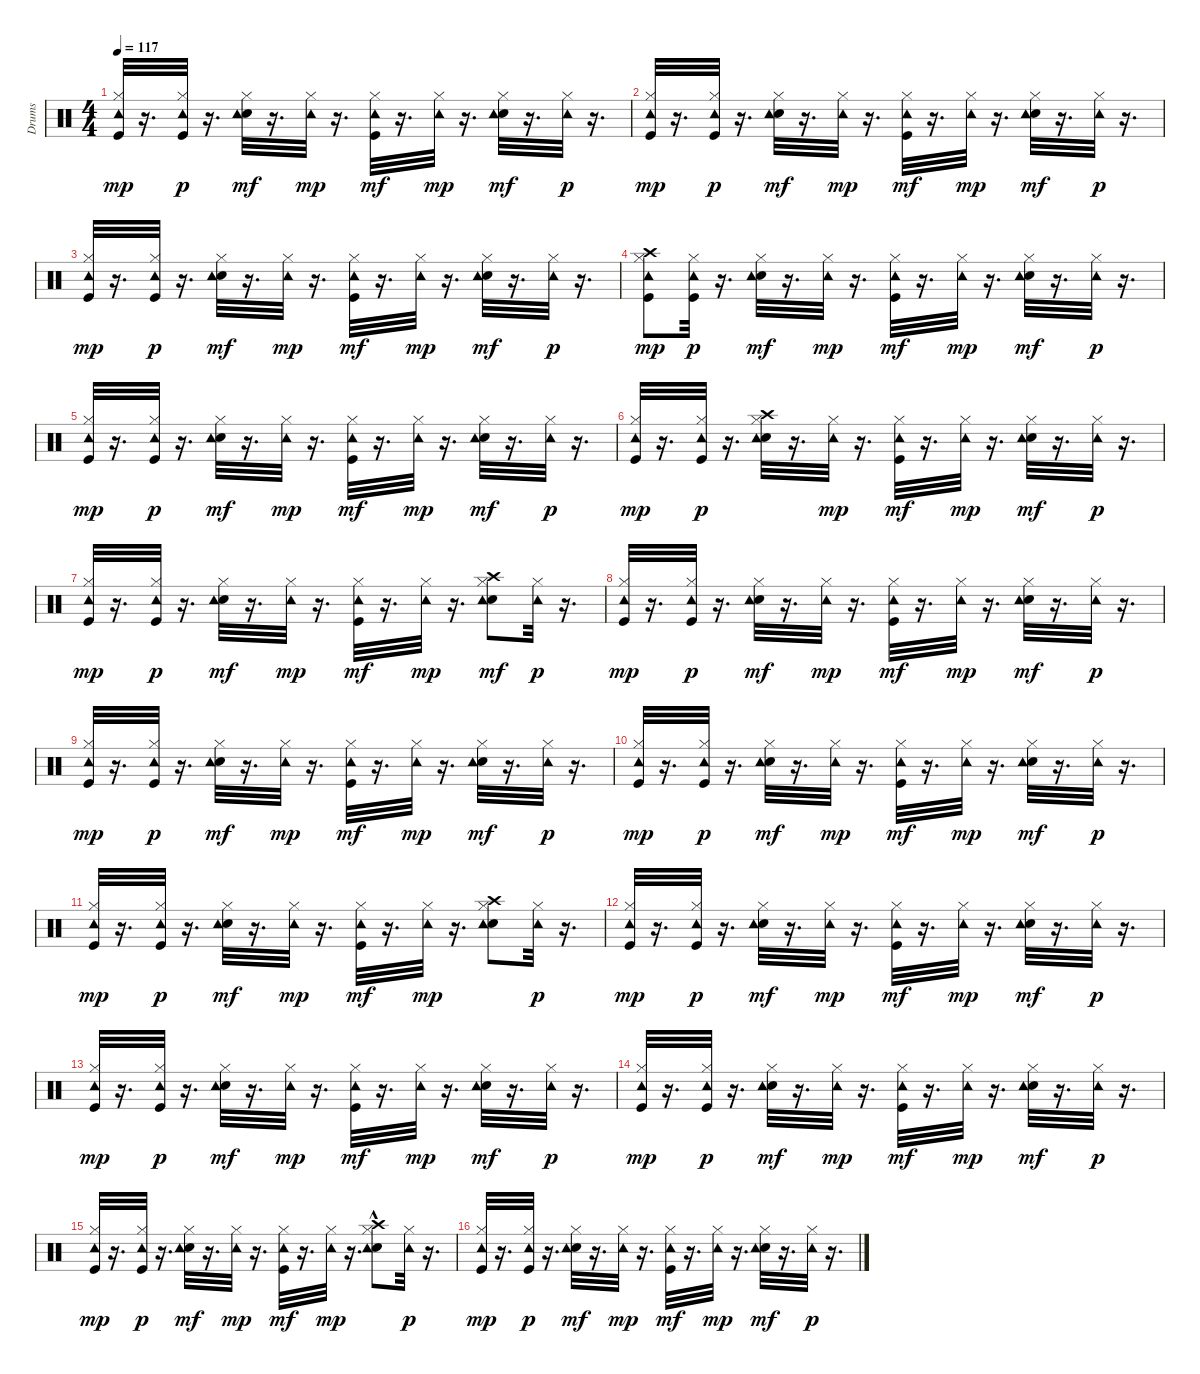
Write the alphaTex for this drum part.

\track ("Drums" "Drums") {instrument percussion}
\staff {score}
\articulation defaults
\ts (4 4)
\tempo 117
\clef neutral
\ks c
("Kick (hit)" "Hi-Hat (closed)" "Tambourine (hit)").32{dy mp} r.16{d} ("Kick (hit)" "Hi-Hat (closed)" "Tambourine (hit)").32{dy p} r.16{d} ("Electric Snare (hit)" "Hi-Hat (closed)" "Tambourine (hit)").32{dy mf} r.16{d} ("Hi-Hat (closed)" "Tambourine (hit)").32{dy mp} r.16{d} ("Kick (hit)" "Hi-Hat (closed)" "Tambourine (hit)").32{dy mf} r.16{d} ("Hi-Hat (closed)" "Tambourine (hit)").32{dy mp} r.16{d} ("Electric Snare (hit)" "Hi-Hat (closed)" "Tambourine (hit)").32{dy mf} r.16{d} ("Hi-Hat (closed)" "Tambourine (hit)").32{dy p} r.16{d} |
("Kick (hit)" "Hi-Hat (closed)" "Tambourine (hit)").32{dy mp} r.16{d} ("Kick (hit)" "Hi-Hat (closed)" "Tambourine (hit)").32{dy p} r.16{d} ("Electric Snare (hit)" "Hi-Hat (closed)" "Tambourine (hit)").32{dy mf} r.16{d} ("Hi-Hat (closed)" "Tambourine (hit)").32{dy mp} r.16{d} ("Kick (hit)" "Hi-Hat (closed)" "Tambourine (hit)").32{dy mf} r.16{d} ("Hi-Hat (closed)" "Tambourine (hit)").32{dy mp} r.16{d} ("Electric Snare (hit)" "Hi-Hat (closed)" "Tambourine (hit)").32{dy mf} r.16{d} ("Hi-Hat (closed)" "Tambourine (hit)").32{dy p} r.16{d} |
("Kick (hit)" "Hi-Hat (closed)" "Tambourine (hit)").32{dy mp} r.16{d} ("Kick (hit)" "Hi-Hat (closed)" "Tambourine (hit)").32{dy p} r.16{d} ("Electric Snare (hit)" "Hi-Hat (closed)" "Tambourine (hit)").32{dy mf} r.16{d} ("Hi-Hat (closed)" "Tambourine (hit)").32{dy mp} r.16{d} ("Kick (hit)" "Hi-Hat (closed)" "Tambourine (hit)").32{dy mf} r.16{d} ("Hi-Hat (closed)" "Tambourine (hit)").32{dy mp} r.16{d} ("Electric Snare (hit)" "Hi-Hat (closed)" "Tambourine (hit)").32{dy mf} r.16{d} ("Hi-Hat (closed)" "Tambourine (hit)").32{dy p} r.16{d} |
("Crash high (hit)" "Kick (hit)" "Hi-Hat (closed)" "Tambourine (hit)").8{dy mp} ("Kick (hit)" "Hi-Hat (closed)" "Tambourine (hit)").32{dy p} r.16{d} ("Electric Snare (hit)" "Hi-Hat (closed)" "Tambourine (hit)").32{dy mf} r.16{d} ("Hi-Hat (closed)" "Tambourine (hit)").32{dy mp} r.16{d} ("Kick (hit)" "Hi-Hat (closed)" "Tambourine (hit)").32{dy mf} r.16{d} ("Hi-Hat (closed)" "Tambourine (hit)").32{dy mp} r.16{d} ("Electric Snare (hit)" "Hi-Hat (closed)" "Tambourine (hit)").32{dy mf} r.16{d} ("Hi-Hat (closed)" "Tambourine (hit)").32{dy p} r.16{d} |
("Kick (hit)" "Hi-Hat (closed)" "Tambourine (hit)").32{dy mp} r.16{d} ("Kick (hit)" "Hi-Hat (closed)" "Tambourine (hit)").32{dy p} r.16{d} ("Electric Snare (hit)" "Hi-Hat (closed)" "Tambourine (hit)").32{dy mf} r.16{d} ("Hi-Hat (closed)" "Tambourine (hit)").32{dy mp} r.16{d} ("Kick (hit)" "Hi-Hat (closed)" "Tambourine (hit)").32{dy mf} r.16{d} ("Hi-Hat (closed)" "Tambourine (hit)").32{dy mp} r.16{d} ("Electric Snare (hit)" "Hi-Hat (closed)" "Tambourine (hit)").32{dy mf} r.16{d} ("Hi-Hat (closed)" "Tambourine (hit)").32{dy p} r.16{d} |
("Kick (hit)" "Hi-Hat (closed)" "Tambourine (hit)").32{dy mp} r.16{d} ("Kick (hit)" "Hi-Hat (closed)" "Tambourine (hit)").32{dy p} r.16{d} ("Electric Snare (hit)" "Hi-Hat (closed)" "Tambourine (hit)" "Crash high (hit)").32 r.16{d} ("Hi-Hat (closed)" "Tambourine (hit)").32{dy mp} r.16{d} ("Kick (hit)" "Hi-Hat (closed)" "Tambourine (hit)").32{dy mf} r.16{d} ("Hi-Hat (closed)" "Tambourine (hit)").32{dy mp} r.16{d} ("Electric Snare (hit)" "Hi-Hat (closed)" "Tambourine (hit)").32{dy mf} r.16{d} ("Hi-Hat (closed)" "Tambourine (hit)").32{dy p} r.16{d} |
("Kick (hit)" "Hi-Hat (closed)" "Tambourine (hit)").32{dy mp} r.16{d} ("Kick (hit)" "Hi-Hat (closed)" "Tambourine (hit)").32{dy p} r.16{d} ("Electric Snare (hit)" "Hi-Hat (closed)" "Tambourine (hit)").32{dy mf} r.16{d} ("Hi-Hat (closed)" "Tambourine (hit)").32{dy mp} r.16{d} ("Kick (hit)" "Hi-Hat (closed)" "Tambourine (hit)").32{dy mf} r.16{d} ("Hi-Hat (closed)" "Tambourine (hit)").32{dy mp} r.16{d} ("Electric Snare (hit)" "Hi-Hat (closed)" "Tambourine (hit)" "Crash high (hit)").8{dy mf} ("Hi-Hat (closed)" "Tambourine (hit)").32{dy p} r.16{d} |
("Kick (hit)" "Hi-Hat (closed)" "Tambourine (hit)").32{dy mp} r.16{d} ("Kick (hit)" "Hi-Hat (closed)" "Tambourine (hit)").32{dy p} r.16{d} ("Electric Snare (hit)" "Hi-Hat (closed)" "Tambourine (hit)").32{dy mf} r.16{d} ("Hi-Hat (closed)" "Tambourine (hit)").32{dy mp} r.16{d} ("Kick (hit)" "Hi-Hat (closed)" "Tambourine (hit)").32{dy mf} r.16{d} ("Hi-Hat (closed)" "Tambourine (hit)").32{dy mp} r.16{d} ("Electric Snare (hit)" "Hi-Hat (closed)" "Tambourine (hit)").32{dy mf} r.16{d} ("Hi-Hat (closed)" "Tambourine (hit)").32{dy p} r.16{d} |
("Kick (hit)" "Hi-Hat (closed)" "Tambourine (hit)").32{dy mp} r.16{d} ("Kick (hit)" "Hi-Hat (closed)" "Tambourine (hit)").32{dy p} r.16{d} ("Electric Snare (hit)" "Hi-Hat (closed)" "Tambourine (hit)").32{dy mf} r.16{d} ("Hi-Hat (closed)" "Tambourine (hit)").32{dy mp} r.16{d} ("Kick (hit)" "Hi-Hat (closed)" "Tambourine (hit)").32{dy mf} r.16{d} ("Hi-Hat (closed)" "Tambourine (hit)").32{dy mp} r.16{d} ("Electric Snare (hit)" "Hi-Hat (closed)" "Tambourine (hit)").32{dy mf} r.16{d} ("Hi-Hat (closed)" "Tambourine (hit)").32{dy p} r.16{d} |
("Kick (hit)" "Hi-Hat (closed)" "Tambourine (hit)").32{dy mp} r.16{d} ("Kick (hit)" "Hi-Hat (closed)" "Tambourine (hit)").32{dy p} r.16{d} ("Electric Snare (hit)" "Hi-Hat (closed)" "Tambourine (hit)").32{dy mf} r.16{d} ("Hi-Hat (closed)" "Tambourine (hit)").32{dy mp} r.16{d} ("Kick (hit)" "Hi-Hat (closed)" "Tambourine (hit)").32{dy mf} r.16{d} ("Hi-Hat (closed)" "Tambourine (hit)").32{dy mp} r.16{d} ("Electric Snare (hit)" "Hi-Hat (closed)" "Tambourine (hit)").32{dy mf} r.16{d} ("Hi-Hat (closed)" "Tambourine (hit)").32{dy p} r.16{d} |
("Kick (hit)" "Hi-Hat (closed)" "Tambourine (hit)").32{dy mp} r.16{d} ("Kick (hit)" "Hi-Hat (closed)" "Tambourine (hit)").32{dy p} r.16{d} ("Electric Snare (hit)" "Hi-Hat (closed)" "Tambourine (hit)").32{dy mf} r.16{d} ("Hi-Hat (closed)" "Tambourine (hit)").32{dy mp} r.16{d} ("Kick (hit)" "Hi-Hat (closed)" "Tambourine (hit)").32{dy mf} r.16{d} ("Hi-Hat (closed)" "Tambourine (hit)").32{dy mp} r.16{d} ("Electric Snare (hit)" "Hi-Hat (closed)" "Tambourine (hit)" "Crash high (hit)").8 ("Hi-Hat (closed)" "Tambourine (hit)").32{dy p} r.16{d} |
("Kick (hit)" "Hi-Hat (closed)" "Tambourine (hit)").32{dy mp} r.16{d} ("Kick (hit)" "Hi-Hat (closed)" "Tambourine (hit)").32{dy p} r.16{d} ("Electric Snare (hit)" "Hi-Hat (closed)" "Tambourine (hit)").32{dy mf} r.16{d} ("Hi-Hat (closed)" "Tambourine (hit)").32{dy mp} r.16{d} ("Kick (hit)" "Hi-Hat (closed)" "Tambourine (hit)").32{dy mf} r.16{d} ("Hi-Hat (closed)" "Tambourine (hit)").32{dy mp} r.16{d} ("Electric Snare (hit)" "Hi-Hat (closed)" "Tambourine (hit)").32{dy mf} r.16{d} ("Hi-Hat (closed)" "Tambourine (hit)").32{dy p} r.16{d} |
("Kick (hit)" "Hi-Hat (closed)" "Tambourine (hit)").32{dy mp} r.16{d} ("Kick (hit)" "Hi-Hat (closed)" "Tambourine (hit)").32{dy p} r.16{d} ("Electric Snare (hit)" "Hi-Hat (closed)" "Tambourine (hit)").32{dy mf} r.16{d} ("Hi-Hat (closed)" "Tambourine (hit)").32{dy mp} r.16{d} ("Kick (hit)" "Hi-Hat (closed)" "Tambourine (hit)").32{dy mf} r.16{d} ("Hi-Hat (closed)" "Tambourine (hit)").32{dy mp} r.16{d} ("Electric Snare (hit)" "Hi-Hat (closed)" "Tambourine (hit)").32{dy mf} r.16{d} ("Hi-Hat (closed)" "Tambourine (hit)").32{dy p} r.16{d} |
("Kick (hit)" "Hi-Hat (closed)" "Tambourine (hit)").32{dy mp} r.16{d} ("Kick (hit)" "Hi-Hat (closed)" "Tambourine (hit)").32{dy p} r.16{d} ("Electric Snare (hit)" "Hi-Hat (closed)" "Tambourine (hit)").32{dy mf} r.16{d} ("Hi-Hat (closed)" "Tambourine (hit)").32{dy mp} r.16{d} ("Kick (hit)" "Hi-Hat (closed)" "Tambourine (hit)").32{dy mf} r.16{d} ("Hi-Hat (closed)" "Tambourine (hit)").32{dy mp} r.16{d} ("Electric Snare (hit)" "Hi-Hat (closed)" "Tambourine (hit)").32{dy mf} r.16{d} ("Hi-Hat (closed)" "Tambourine (hit)").32{dy p} r.16{d} |
("Kick (hit)" "Hi-Hat (closed)" "Tambourine (hit)").32{dy mp} r.16{d} ("Kick (hit)" "Hi-Hat (closed)" "Tambourine (hit)").32{dy p} r.16{d} ("Electric Snare (hit)" "Hi-Hat (closed)" "Tambourine (hit)").32{dy mf} r.16{d} ("Hi-Hat (closed)" "Tambourine (hit)").32{dy mp} r.16{d} ("Kick (hit)" "Hi-Hat (closed)" "Tambourine (hit)").32{dy mf} r.16{d} ("Hi-Hat (closed)" "Tambourine (hit)").32{dy mp} r.16{d} ("Electric Snare (hit)" "Hi-Hat (closed)" "Tambourine (hit)" "Crash high (hit)"{hac}).8 ("Hi-Hat (closed)" "Tambourine (hit)").32{dy p} r.16{d} |
("Kick (hit)" "Hi-Hat (closed)" "Tambourine (hit)").32{dy mp} r.16{d} ("Kick (hit)" "Hi-Hat (closed)" "Tambourine (hit)").32{dy p} r.16{d} ("Electric Snare (hit)" "Hi-Hat (closed)" "Tambourine (hit)").32{dy mf} r.16{d} ("Hi-Hat (closed)" "Tambourine (hit)").32{dy mp} r.16{d} ("Kick (hit)" "Hi-Hat (closed)" "Tambourine (hit)").32{dy mf} r.16{d} ("Hi-Hat (closed)" "Tambourine (hit)").32{dy mp} r.16{d} ("Electric Snare (hit)" "Hi-Hat (closed)" "Tambourine (hit)").32{dy mf} r.16{d} ("Hi-Hat (closed)" "Tambourine (hit)").32{dy p} r.16{d}
